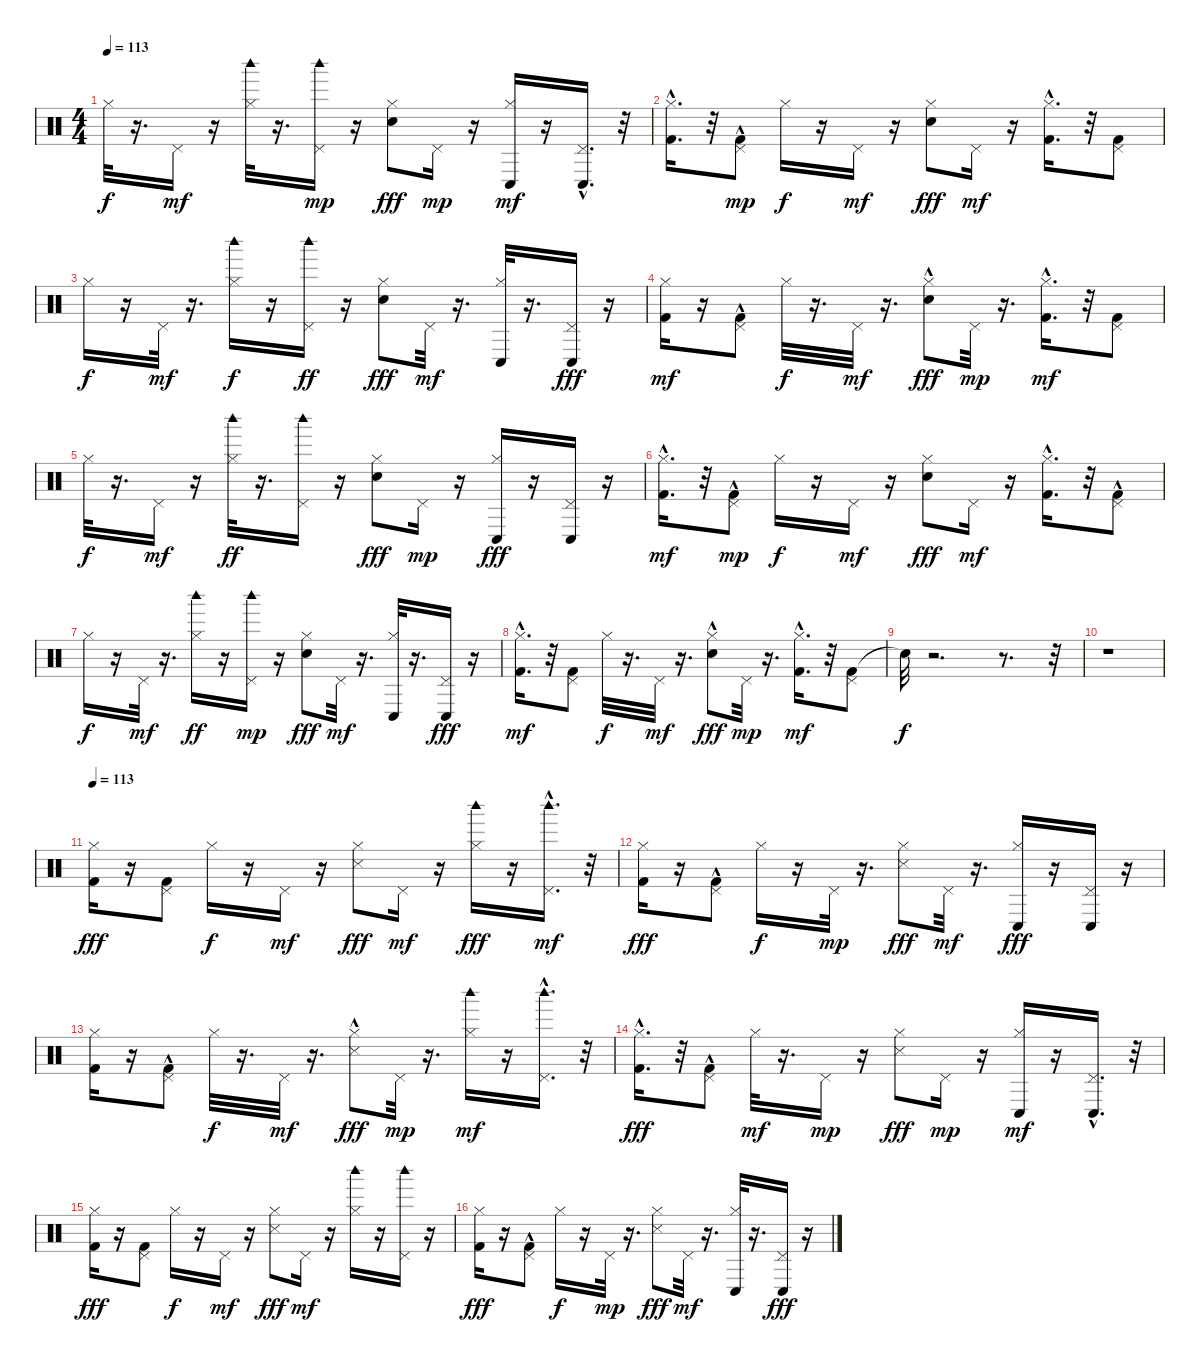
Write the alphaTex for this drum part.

\track "" {instrument percussion}
\staff {score}
\articulation defaults
\ts (4 4)
\tempo 113
\clef neutral
\ks c "Hi-Hat (closed)".32{dy f}
r.16{d} "Pedal Hi-Hat (hit)".16{dy mf} r.16 ("Woodblock high (hit)" "Hi-Hat (closed)").32 r.16{d} ("Woodblock high (hit)" "Pedal Hi-Hat (hit)").16{dy mp} r.16 ("Hi-Hat (closed)" "Snare (hit) 2").8{dy fff} "Pedal Hi-Hat (hit)".16{dy mp} r.16 ("Conga low (hit)" "Hi-Hat (closed)").16{dy mf} r.16 ("Conga low (hit)"{hac} "Pedal Hi-Hat (hit)").16{d} r.32 |
("Kick (hit) 2"{hac} "Hi-Hat (closed)").16{d} r.32 ("Kick (hit) 2"{hac} "Pedal Hi-Hat (hit)").8{dy mp} "Hi-Hat (closed)".16{dy f} r.16 "Pedal Hi-Hat (hit)".16{dy mf} r.16 ("Hi-Hat (closed)" "Snare (hit) 2").8{dy fff} "Pedal Hi-Hat (hit)".16{dy mf} r.16 ("Kick (hit) 2"{hac} "Hi-Hat (closed)").16{d} r.32 ("Kick (hit) 2" "Pedal Hi-Hat (hit)").8 |
"Hi-Hat (closed)".16{dy f} r.16 "Pedal Hi-Hat (hit)".32{dy mf} r.16{d} ("Hi-Hat (closed)" "Woodblock high (hit)").16{dy f} r.16 ("Pedal Hi-Hat (hit)" "Woodblock high (hit)").16{dy ff} r.16 ("Hi-Hat (closed)" "Snare (hit) 2").8{dy fff} "Pedal Hi-Hat (hit)".32{dy mf} r.16{d} ("Conga low (hit)" "Hi-Hat (closed)").32 r.16{d} ("Pedal Hi-Hat (hit)" "Conga low (hit)").16{dy fff} r.16 |
("Kick (hit) 2" "Hi-Hat (closed)").16{dy mf} r.16 ("Kick (hit) 2"{hac} "Pedal Hi-Hat (hit)").8 "Hi-Hat (closed)".32{dy f} r.16{d} "Pedal Hi-Hat (hit)".32{dy mf} r.16{d} ("Hi-Hat (closed)" "Snare (hit) 2"{hac}).8{dy fff} "Pedal Hi-Hat (hit)".32{dy mp} r.16{d} ("Kick (hit) 2"{hac} "Hi-Hat (closed)").16{d dy mf} r.32 ("Kick (hit) 2" "Pedal Hi-Hat (hit)").8 |
"Hi-Hat (closed)".32{dy f} r.16{d} "Pedal Hi-Hat (hit)".16{dy mf} r.16 ("Hi-Hat (closed)" "Woodblock high (hit)").32{dy ff} r.16{d} ("Pedal Hi-Hat (hit)" "Woodblock high (hit)").16 r.16 ("Hi-Hat (closed)" "Snare (hit) 2").8{dy fff} "Pedal Hi-Hat (hit)".16{dy mp} r.16 ("Hi-Hat (closed)" "Conga low (hit)").16{dy fff} r.16 ("Pedal Hi-Hat (hit)" "Conga low (hit)").16 r.16 |
("Kick (hit) 2"{hac} "Hi-Hat (closed)").16{d dy mf} r.32 ("Kick (hit) 2"{hac} "Pedal Hi-Hat (hit)").8{dy mp} "Hi-Hat (closed)".16{dy f} r.16 "Pedal Hi-Hat (hit)".16{dy mf} r.16 ("Hi-Hat (closed)" "Snare (hit) 2").8{dy fff} "Pedal Hi-Hat (hit)".16{dy mf} r.16 ("Kick (hit) 2"{hac} "Hi-Hat (closed)").16{d} r.32 ("Kick (hit) 2"{hac} "Pedal Hi-Hat (hit)").8 |
"Hi-Hat (closed)".16{dy f} r.16 "Pedal Hi-Hat (hit)".32{dy mf} r.16{d} ("Hi-Hat (closed)" "Woodblock high (hit)").16{dy ff} r.16 ("Pedal Hi-Hat (hit)" "Woodblock high (hit)").16{dy mp} r.16 ("Hi-Hat (closed)" "Snare (hit) 2").8{dy fff} "Pedal Hi-Hat (hit)".32{dy mf} r.16{d} ("Conga low (hit)" "Hi-Hat (closed)").32 r.16{d} ("Pedal Hi-Hat (hit)" "Conga low (hit)").16{dy fff} r.16 |
("Kick (hit) 2"{hac} "Hi-Hat (closed)").16{d dy mf} r.32 ("Kick (hit) 2" "Pedal Hi-Hat (hit)").8 "Hi-Hat (closed)".32{dy f} r.16{d} "Pedal Hi-Hat (hit)".32{dy mf} r.16{d} ("Hi-Hat (closed)" "Snare (hit) 2"{hac}).8{dy fff} "Pedal Hi-Hat (hit)".32{dy mp} r.16{d} ("Kick (hit) 2"{hac} "Hi-Hat (closed)").16{d dy mf} r.32 ("Kick (hit) 2" "Pedal Hi-Hat (hit)").8 |
"Snare (hit)"{t}.32{dy f} r.2{d} r.8{d} r.32 |
r.1 |
\tempo 113
("Hi-Hat (closed)" "Kick (hit) 2").16{dy fff} r.16 ("Pedal Hi-Hat (hit)" "Kick (hit) 2").8 "Hi-Hat (closed)".16{dy f} r.16 "Pedal Hi-Hat (hit)".16{dy mf} r.16 ("Hi-Hat (closed)" "Snare (side stick) 3").8{dy fff} "Pedal Hi-Hat (hit)".16{dy mf} r.16 ("Hi-Hat (closed)" "Woodblock high (hit)").16{dy fff} r.16 ("Woodblock high (hit)"{hac} "Pedal Hi-Hat (hit)").16{d dy mf} r.32 |
("Hi-Hat (closed)" "Kick (hit) 2").16{dy fff} r.16 ("Pedal Hi-Hat (hit)" "Kick (hit) 2"{hac}).8 "Hi-Hat (closed)".16{dy f} r.16 "Pedal Hi-Hat (hit)".32{dy mp} r.16{d} ("Hi-Hat (closed)" "Snare (side stick) 3").8{dy fff} "Pedal Hi-Hat (hit)".32{dy mf} r.16{d} ("Hi-Hat (closed)" "Conga low (hit)").16{dy fff} r.16 ("Pedal Hi-Hat (hit)" "Conga low (hit)").16 r.16 |
("Hi-Hat (closed)" "Kick (hit) 2").16 r.16 ("Pedal Hi-Hat (hit)" "Kick (hit) 2"{hac}).8 "Hi-Hat (closed)".32{dy f} r.16{d} "Pedal Hi-Hat (hit)".32{dy mf} r.16{d} ("Hi-Hat (closed)" "Snare (side stick) 3"{hac}).8{dy fff} "Pedal Hi-Hat (hit)".32{dy mp} r.16{d} ("Woodblock high (hit)" "Hi-Hat (closed)").16{dy mf} r.16 ("Woodblock high (hit)"{hac} "Pedal Hi-Hat (hit)").16{d} r.32 |
("Hi-Hat (closed)" "Kick (hit) 2"{hac}).16{d dy fff} r.32 ("Pedal Hi-Hat (hit)" "Kick (hit) 2"{hac}).8 "Hi-Hat (closed)".32{dy mf} r.16{d} "Pedal Hi-Hat (hit)".16{dy mp} r.16 ("Hi-Hat (closed)" "Snare (side stick) 3").8{dy fff} "Pedal Hi-Hat (hit)".16{dy mp} r.16 ("Conga low (hit)" "Hi-Hat (closed)").16{dy mf} r.16 ("Conga low (hit)"{hac} "Pedal Hi-Hat (hit)").16{d} r.32 |
("Hi-Hat (closed)" "Kick (hit) 2").16{dy fff} r.16 ("Pedal Hi-Hat (hit)" "Kick (hit) 2").8 "Hi-Hat (closed)".16{dy f} r.16 "Pedal Hi-Hat (hit)".16{dy mf} r.16 ("Hi-Hat (closed)" "Snare (side stick) 3").8{dy fff} "Pedal Hi-Hat (hit)".16{dy mf} r.16 ("Woodblock high (hit)" "Hi-Hat (closed)").16 r.16 ("Woodblock high (hit)" "Pedal Hi-Hat (hit)").16 r.16 |
("Hi-Hat (closed)" "Kick (hit) 2").16{dy fff} r.16 ("Pedal Hi-Hat (hit)" "Kick (hit) 2"{hac}).8 "Hi-Hat (closed)".16{dy f} r.16 "Pedal Hi-Hat (hit)".32{dy mp} r.16{d} ("Hi-Hat (closed)" "Snare (side stick) 3").8{dy fff} "Pedal Hi-Hat (hit)".32{dy mf} r.16{d} ("Conga low (hit)" "Hi-Hat (closed)").32 r.16{d} ("Pedal Hi-Hat (hit)" "Conga low (hit)").16{dy fff} r.16
